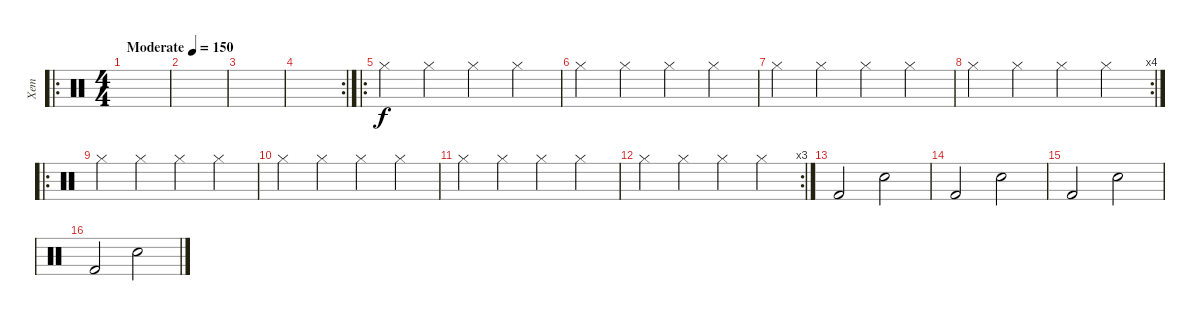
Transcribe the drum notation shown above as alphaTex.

\track ("Хет" "Хет") {instrument percussion}
\staff {score}
\articulation defaults
\ro
\ts (4 4)
\tempo (150 "Moderate")
\clef neutral
\ks c
|
|
|
\rc 2
|
\ro "Hi-Hat (closed)".4 "Hi-Hat (closed)".4 "Hi-Hat (closed)".4 "Hi-Hat (closed)".4
|
"Hi-Hat (closed)".4 "Hi-Hat (closed)".4 "Hi-Hat (closed)".4 "Hi-Hat (closed)".4 |
"Hi-Hat (closed)".4 "Hi-Hat (closed)".4 "Hi-Hat (closed)".4 "Hi-Hat (closed)".4 |
\rc 4 "Hi-Hat (closed)".4 "Hi-Hat (closed)".4 "Hi-Hat (closed)".4 "Hi-Hat (closed)".4
|
\ro "Hi-Hat (closed)".4 "Hi-Hat (closed)".4 "Hi-Hat (closed)".4 "Hi-Hat (closed)".4
|
"Hi-Hat (closed)".4 "Hi-Hat (closed)".4 "Hi-Hat (closed)".4 "Hi-Hat (closed)".4 |
"Hi-Hat (closed)".4 "Hi-Hat (closed)".4 "Hi-Hat (closed)".4 "Hi-Hat (closed)".4 |
\rc 3 "Hi-Hat (closed)".4 "Hi-Hat (closed)".4 "Hi-Hat (closed)".4 "Hi-Hat (closed)".4
|
"Kick (hit) 2".2 "Snare (hit) 2".2 |
"Kick (hit) 2".2 "Snare (hit) 2".2 |
"Kick (hit) 2".2 "Snare (hit) 2".2 |
"Kick (hit) 2".2 "Snare (hit) 2".2
